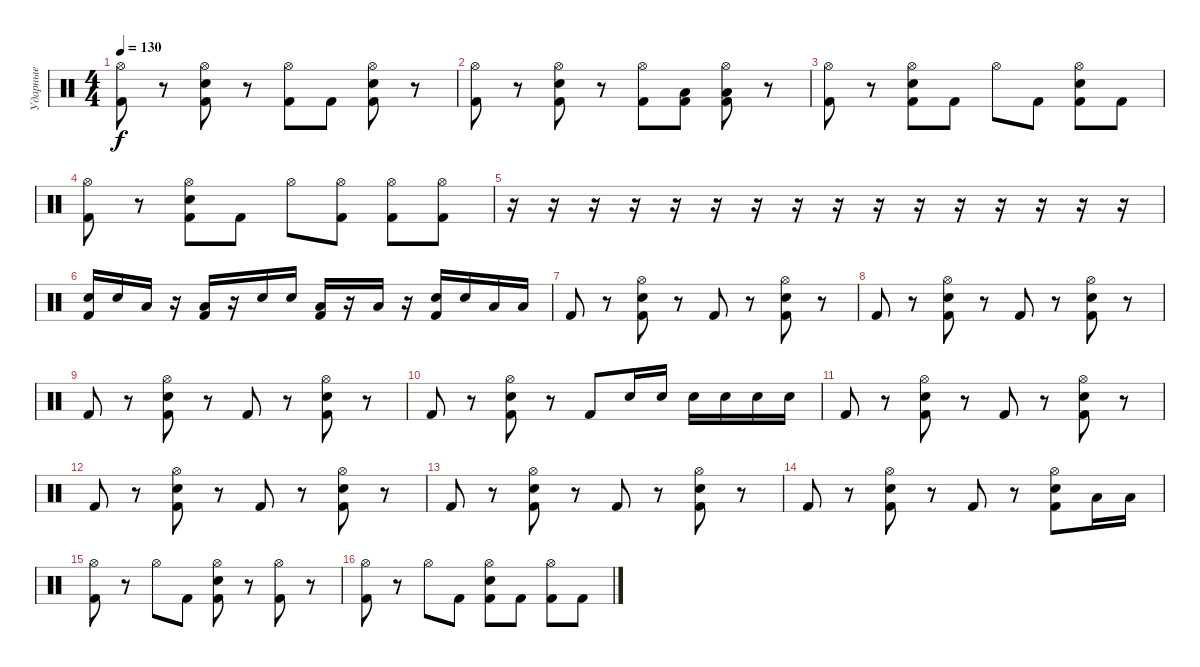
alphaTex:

\track ("Ударные" "Ударные") {instrument percussion}
\staff {score}
\articulation defaults
\ts (4 4)
\tempo 130
\clef neutral
\ks c
("Hi-Hat (open)" "Kick (hit) 2").8{dy f} r.8 ("Hi-Hat (open)" "Snare (hit) 2" "Kick (hit) 2").8 r.8 ("Hi-Hat (open)" "Kick (hit) 2").8 "Kick (hit) 2".8 ("Hi-Hat (open)" "Snare (hit) 2" "Kick (hit) 2").8 r.8 |
("Hi-Hat (open)" "Kick (hit) 2").8 r.8 ("Hi-Hat (open)" "Snare (hit) 2" "Kick (hit) 2").8 r.8 ("Hi-Hat (open)" "Kick (hit) 2").8 ("Low Tom (hit)" "Kick (hit) 2").8 ("Hi-Hat (open)" "Low Tom (hit)" "Kick (hit) 2").8 r.8 |
("Hi-Hat (open)" "Kick (hit) 2").8 r.8 ("Hi-Hat (open)" "Snare (hit) 2" "Kick (hit) 2").8 "Kick (hit) 2".8 "Hi-Hat (open)".8 "Kick (hit) 2".8 ("Hi-Hat (open)" "Snare (hit) 2" "Kick (hit) 2").8 "Kick (hit) 2".8 |
("Hi-Hat (open)" "Kick (hit) 2").8 r.8 ("Hi-Hat (open)" "Snare (hit) 2" "Kick (hit) 2").8 "Kick (hit) 2".8 "Hi-Hat (open)".8 ("Hi-Hat (open)" "Kick (hit) 2").8 ("Hi-Hat (open)" "Kick (hit) 2").8 ("Hi-Hat (open)" "Kick (hit) 2").8 |
r.16 r.16 r.16 r.16 r.16 r.16 r.16 r.16 r.16 r.16 r.16 r.16 r.16 r.16 r.16 r.16 |
("Snare (hit) 2" "Kick (hit) 2").16 "Snare (hit) 2".16 "Low Tom (hit)".16 r.16 ("Low Tom (hit)" "Kick (hit) 2").16 r.16 "Snare (hit) 2".16 "Snare (hit) 2".16 ("Low Tom (hit)" "Kick (hit) 2").16 r.16 "Low Tom (hit)".16 r.16 ("Snare (hit) 2" "Kick (hit) 2").16 "Snare (hit) 2".16 "Low Tom (hit)".16 "Low Tom (hit)".16 |
"Kick (hit) 2".8 r.8 ("Hi-Hat (open)" "Snare (hit) 2" "Kick (hit) 2").8 r.8 "Kick (hit) 2".8 r.8 ("Hi-Hat (open)" "Snare (hit) 2" "Kick (hit) 2").8 r.8 |
"Kick (hit) 2".8 r.8 ("Hi-Hat (open)" "Snare (hit) 2" "Kick (hit) 2").8 r.8 "Kick (hit) 2".8 r.8 ("Hi-Hat (open)" "Snare (hit) 2" "Kick (hit) 2").8 r.8 |
"Kick (hit) 2".8 r.8 ("Hi-Hat (open)" "Snare (hit) 2" "Kick (hit) 2").8 r.8 "Kick (hit) 2".8 r.8 ("Hi-Hat (open)" "Snare (hit) 2" "Kick (hit) 2").8 r.8 |
"Kick (hit) 2".8 r.8 ("Hi-Hat (open)" "Snare (hit) 2" "Kick (hit) 2").8 r.8 "Kick (hit) 2".8 "Snare (hit) 2".16 "Snare (hit) 2".16 "Snare (hit) 2".16 "Snare (hit) 2".16 "Snare (hit) 2".16 "Snare (hit) 2".16 |
"Kick (hit) 2".8 r.8 ("Hi-Hat (open)" "Snare (hit) 2" "Kick (hit) 2").8 r.8 "Kick (hit) 2".8 r.8 ("Hi-Hat (open)" "Snare (hit) 2" "Kick (hit) 2").8 r.8 |
"Kick (hit) 2".8 r.8 ("Hi-Hat (open)" "Snare (hit) 2" "Kick (hit) 2").8 r.8 "Kick (hit) 2".8 r.8 ("Hi-Hat (open)" "Snare (hit) 2" "Kick (hit) 2").8 r.8 |
"Kick (hit) 2".8 r.8 ("Hi-Hat (open)" "Snare (hit) 2" "Kick (hit) 2").8 r.8 "Kick (hit) 2".8 r.8 ("Hi-Hat (open)" "Snare (hit) 2" "Kick (hit) 2").8 r.8 |
"Kick (hit) 2".8 r.8 ("Hi-Hat (open)" "Snare (hit) 2" "Kick (hit) 2").8 r.8 "Kick (hit) 2".8 r.8 ("Hi-Hat (open)" "Snare (hit) 2" "Kick (hit) 2").8 "Low Tom (hit)".16 "Low Tom (hit)".16 |
("Hi-Hat (open)" "Kick (hit) 2").8 r.8 "Hi-Hat (open)".8 "Kick (hit) 2".8 ("Hi-Hat (open)" "Snare (hit) 2" "Kick (hit) 2").8 r.8 ("Hi-Hat (open)" "Kick (hit) 2").8 r.8 |
("Hi-Hat (open)" "Kick (hit) 2").8 r.8 "Hi-Hat (open)".8 "Kick (hit) 2".8 ("Hi-Hat (open)" "Snare (hit) 2" "Kick (hit) 2").8 "Kick (hit) 2".8 ("Hi-Hat (open)" "Kick (hit) 2").8 "Kick (hit) 2".8
